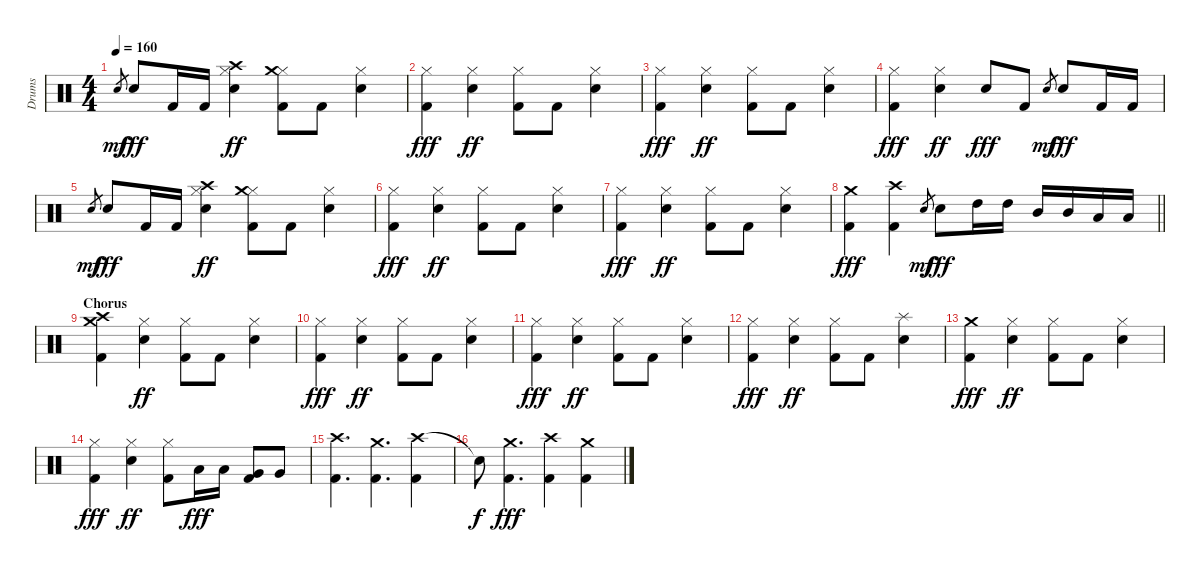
\track ("Drums" "Drums") {instrument percussion}
\staff {score}
\articulation defaults
\ts (4 4)
\section ("" "")
\tempo 160
\clef neutral
\ks c "Electric Snare (hit)".8{gr dy mf} "Electric Snare (hit)".8{dy fff} "Kick (hit) 2".16 "Kick (hit) 2".16
("Hi-Hat (closed)" "Crash high (hit)" "Electric Snare (hit)").4{dy ff} ("Hi-Hat (closed)" "Crash medium (hit)" "Kick (hit) 2").8 "Kick (hit) 2".8 ("Hi-Hat (closed)" "Electric Snare (hit)").4 |
("Hi-Hat (closed)" "Kick (hit) 2").4{dy fff} ("Hi-Hat (closed)" "Electric Snare (hit)").4{dy ff} ("Hi-Hat (closed)" "Kick (hit) 2").8 "Kick (hit) 2".8 ("Hi-Hat (closed)" "Electric Snare (hit)").4 |
("Hi-Hat (closed)" "Kick (hit) 2").4{dy fff} ("Hi-Hat (closed)" "Electric Snare (hit)").4{dy ff} ("Hi-Hat (closed)" "Kick (hit) 2").8 "Kick (hit) 2".8 ("Hi-Hat (closed)" "Electric Snare (hit)").4 |
("Hi-Hat (closed)" "Kick (hit) 2").4{dy fff} ("Hi-Hat (closed)" "Electric Snare (hit)").4{dy ff} "Electric Snare (hit)".8{dy fff} "Kick (hit) 2".8 "Electric Snare (hit)".8{gr dy mf} "Electric Snare (hit)".8{dy fff} "Kick (hit) 2".16 "Kick (hit) 2".16 |
"Electric Snare (hit)".8{gr dy mf} "Electric Snare (hit)".8{dy fff} "Kick (hit) 2".16 "Kick (hit) 2".16 ("Hi-Hat (closed)" "Crash high (hit)" "Electric Snare (hit)").4{dy ff} ("Hi-Hat (closed)" "Crash medium (hit)" "Kick (hit) 2").8 "Kick (hit) 2".8 ("Hi-Hat (closed)" "Electric Snare (hit)").4 |
("Hi-Hat (closed)" "Kick (hit) 2").4{dy fff} ("Hi-Hat (closed)" "Electric Snare (hit)").4{dy ff} ("Hi-Hat (closed)" "Kick (hit) 2").8 "Kick (hit) 2".8 ("Hi-Hat (closed)" "Electric Snare (hit)").4 |
("Hi-Hat (closed)" "Kick (hit) 2").4{dy fff} ("Hi-Hat (closed)" "Electric Snare (hit)").4{dy ff} ("Hi-Hat (closed)" "Kick (hit) 2").8 "Kick (hit) 2".8 ("Hi-Hat (closed)" "Electric Snare (hit)").4 |
\barLineRight lightlight
("Crash medium (hit)" "Kick (hit) 2").4{dy fff} ("Crash high (hit)" "Kick (hit) 2").4 "Electric Snare (hit)".8{gr dy mf} "Electric Snare (hit)".8{dy fff} "High Tom (hit)".16 "High Tom (hit)".16 "Mid Tom (hit)".16 "Mid Tom (hit)".16 "Low Tom (hit)".16 "Low Tom (hit)".16 |
\section ("" "Chorus")
("Crash medium (hit)" "Crash high (hit)" "Kick (hit) 2").4 ("Hi-Hat (closed)" "Electric Snare (hit)").4{dy ff} ("Hi-Hat (closed)" "Kick (hit) 2").8 "Kick (hit) 2".8 ("Hi-Hat (closed)" "Electric Snare (hit)").4 |
("Hi-Hat (closed)" "Kick (hit) 2").4{dy fff} ("Hi-Hat (closed)" "Electric Snare (hit)").4{dy ff} ("Hi-Hat (closed)" "Kick (hit) 2").8 "Kick (hit) 2".8 ("Hi-Hat (closed)" "Electric Snare (hit)").4 |
("Hi-Hat (closed)" "Kick (hit) 2").4{dy fff} ("Hi-Hat (closed)" "Electric Snare (hit)").4{dy ff} ("Hi-Hat (closed)" "Kick (hit) 2").8 "Kick (hit) 2".8 ("Hi-Hat (closed)" "Electric Snare (hit)").4 |
("Hi-Hat (closed)" "Kick (hit) 2").4{dy fff} ("Hi-Hat (closed)" "Electric Snare (hit)").4{dy ff} ("Hi-Hat (closed)" "Kick (hit) 2").8 "Kick (hit) 2".8 ("Splash (hit)" "Electric Snare (hit)").4 |
("Crash medium (hit)" "Kick (hit) 2").4{dy fff} ("Hi-Hat (closed)" "Electric Snare (hit)").4{dy ff} ("Hi-Hat (closed)" "Kick (hit) 2").8 "Kick (hit) 2".8 ("Hi-Hat (closed)" "Electric Snare (hit)").4 |
("Hi-Hat (closed)" "Kick (hit) 2").4{dy fff} ("Hi-Hat (closed)" "Electric Snare (hit)").4{dy ff} ("Hi-Hat (closed)" "Kick (hit) 2").8 "Low Tom (hit)".16{dy fff} "Low Tom (hit)".16 ("Very Low Tom (hit)" "Kick (hit) 2").8 "Very Low Tom (hit)".8 |
("Crash high (hit)" "Kick (hit) 2").4{d} ("Crash medium (hit)" "Kick (hit) 2").4{d} ("Crash high (hit)" "Kick (hit) 2").4 |
"Snare (hit)"{t}.8{dy f} ("Crash medium (hit)" "Kick (hit) 2").4{d dy fff} ("Crash high (hit)" "Kick (hit) 2").4 ("Crash medium (hit)" "Kick (hit) 2").4
